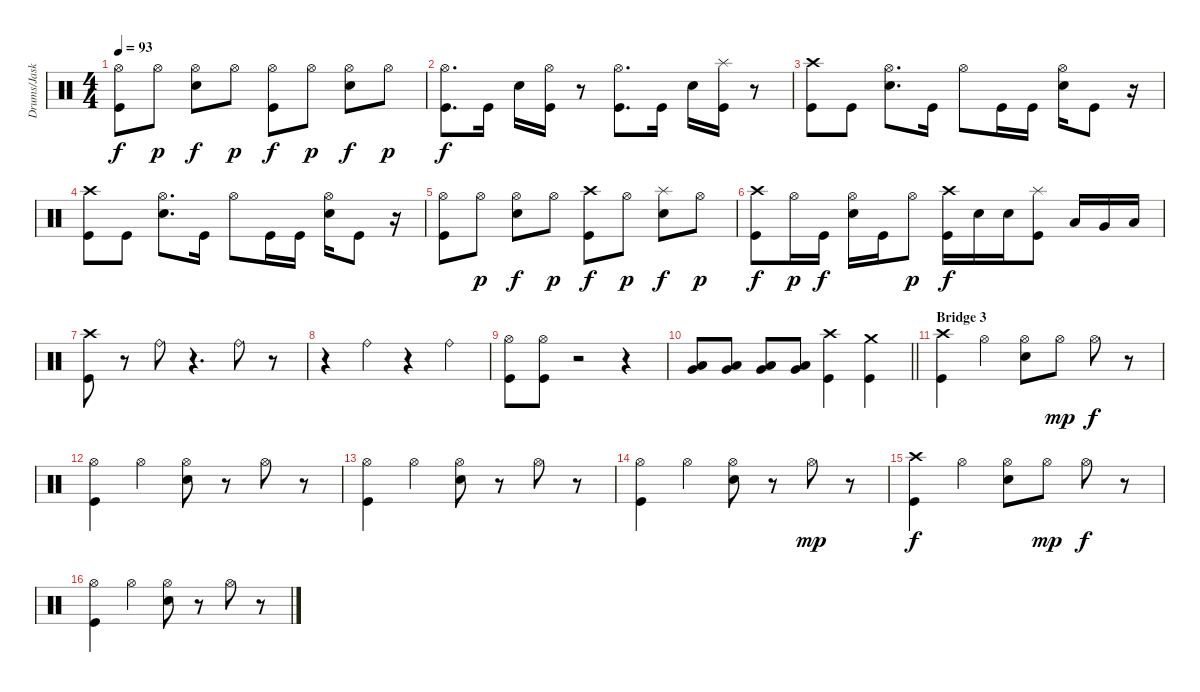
\track ("Drums/Jaska" "Drums/Jask") {instrument percussion}
\staff {score}
\articulation defaults
\ts (4 4)
\tempo 93
\clef neutral
\ks c
("Hi-Hat (open)" "Kick (hit)").8{dy f} "Hi-Hat (open)".8{dy p} ("Hi-Hat (open)" "Electric Snare (hit)").8{dy f} "Hi-Hat (open)".8{dy p} ("Hi-Hat (open)" "Kick (hit)").8{dy f} "Hi-Hat (open)".8{dy p} ("Hi-Hat (open)" "Electric Snare (hit)").8{dy f} "Hi-Hat (open)".8{dy p} |
("Hi-Hat (open)" "Kick (hit)").8{d dy f} "Kick (hit)".16 "Electric Snare (hit)".16 ("Hi-Hat (open)" "Kick (hit)").16 r.8 ("Hi-Hat (open)" "Kick (hit)").8{d} "Kick (hit)".16 "Electric Snare (hit)".16 ("Splash (hit)" "Kick (hit)").16 r.8 |
("Crash high (hit)" "Kick (hit)").8 "Kick (hit)".8 ("Hi-Hat (open)" "Electric Snare (hit)").8{d} "Kick (hit)".16 "Hi-Hat (open)".8 "Kick (hit)".16 "Kick (hit)".16 ("Hi-Hat (open)" "Electric Snare (hit)").16 "Kick (hit)".8 r.16 |
("Crash high (hit)" "Kick (hit)").8 "Kick (hit)".8 ("Hi-Hat (open)" "Electric Snare (hit)").8{d} "Kick (hit)".16 "Hi-Hat (open)".8 "Kick (hit)".16 "Kick (hit)".16 ("Hi-Hat (open)" "Electric Snare (hit)").16 "Kick (hit)".8 r.16 |
("Hi-Hat (open)" "Kick (hit)").8 "Hi-Hat (open)".8{dy p} ("Hi-Hat (open)" "Electric Snare (hit)").8{dy f} "Hi-Hat (open)".8{dy p} ("Crash high (hit)" "Kick (hit)").8{dy f} "Hi-Hat (open)".8{dy p} ("Splash (hit)" "Electric Snare (hit)").8{dy f} "Hi-Hat (open)".8{dy p} |
("Crash high (hit)" "Kick (hit)").8{dy f} "Hi-Hat (open)".16{dy p} "Kick (hit)".16{dy f} ("Hi-Hat (open)" "Electric Snare (hit)").16 "Kick (hit)".16 "Hi-Hat (open)".8{dy p} ("Crash high (hit)" "Kick (hit)").16{dy f} "Electric Snare (hit)".16 "Electric Snare (hit)".16 ("Splash (hit)" "Kick (hit)").8 "Low Tom (hit)".16 "Very Low Tom (hit)".16 "Low Floor Tom (hit)".16 |
("Crash high (hit)" "Kick (hit)").8 r.8 "Ride (bell)".8 r.4{d} "Ride (bell)".8 r.8 |
r.4 "Ride (bell)".4 r.4 "Ride (bell)".4 |
("Hi-Hat (open)" "Kick (hit)").8 ("Hi-Hat (open)" "Kick (hit)").8 r.2 r.4 |
\barLineRight lightlight
("Low Tom (hit)" "Very Low Tom (hit)").8 ("Low Tom (hit)" "Very Low Tom (hit)").8 ("Low Tom (hit)" "Very Low Tom (hit)").8 ("Low Tom (hit)" "Very Low Tom (hit)").8 ("Crash high (hit)" "Kick (hit)").4 ("Crash medium (hit)" "Kick (hit)").4 |
\section ("" "Bridge 3")
("Crash high (hit)" "Kick (hit)").4 "Hi-Hat (open)".4 ("Hi-Hat (open)" "Electric Snare (hit)").8 "Hi-Hat (open)".8{dy mp} "Hi-Hat (open)".8{dy f} r.8 |
("Hi-Hat (open)" "Kick (hit)").4 "Hi-Hat (open)".4 ("Hi-Hat (open)" "Electric Snare (hit)").8 r.8 "Hi-Hat (open)".8 r.8 |
("Hi-Hat (open)" "Kick (hit)").4 "Hi-Hat (open)".4 ("Hi-Hat (open)" "Electric Snare (hit)").8 r.8 "Hi-Hat (open)".8 r.8 |
("Hi-Hat (open)" "Kick (hit)").4 "Hi-Hat (open)".4 ("Hi-Hat (open)" "Electric Snare (hit)").8 r.8 "Hi-Hat (open)".8{dy mp} r.8 |
("Crash high (hit)" "Kick (hit)").4{dy f} "Hi-Hat (open)".4 ("Hi-Hat (open)" "Electric Snare (hit)").8 "Hi-Hat (open)".8{dy mp} "Hi-Hat (open)".8{dy f} r.8 |
("Hi-Hat (open)" "Kick (hit)").4 "Hi-Hat (open)".4 ("Hi-Hat (open)" "Electric Snare (hit)").8 r.8 "Hi-Hat (open)".8 r.8
